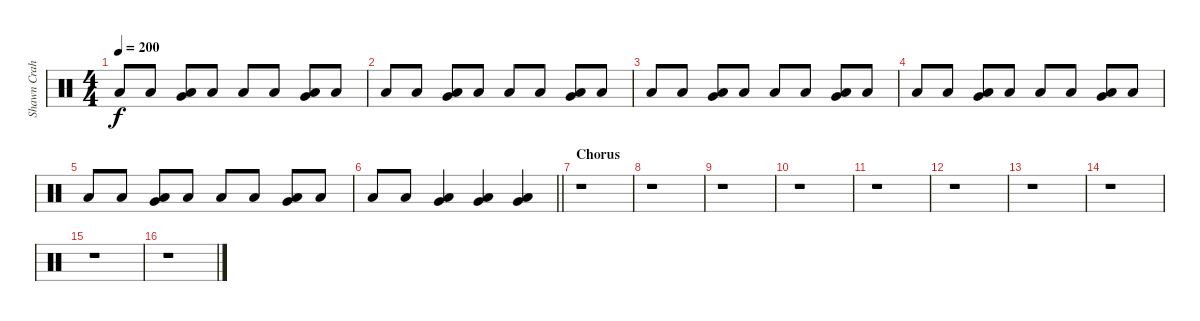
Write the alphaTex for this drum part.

\track ("Shawn Crahan" "Shawn Crah") {instrument percussion}
\staff {score}
\articulation defaults
\ts (4 4)
\tempo 200
\clef neutral
\ks c "Low Floor Tom (hit)".8{dy f} "Low Floor Tom (hit)".8
("Very Low Tom (hit)" "Low Floor Tom (hit)").8 "Low Floor Tom (hit)".8 "Low Floor Tom (hit)".8 "Low Floor Tom (hit)".8 ("Very Low Tom (hit)" "Low Floor Tom (hit)").8 "Low Floor Tom (hit)".8 |
"Low Floor Tom (hit)".8 "Low Floor Tom (hit)".8 ("Very Low Tom (hit)" "Low Floor Tom (hit)").8 "Low Floor Tom (hit)".8 "Low Floor Tom (hit)".8 "Low Floor Tom (hit)".8 ("Very Low Tom (hit)" "Low Floor Tom (hit)").8 "Low Floor Tom (hit)".8 |
"Low Floor Tom (hit)".8 "Low Floor Tom (hit)".8 ("Very Low Tom (hit)" "Low Floor Tom (hit)").8 "Low Floor Tom (hit)".8 "Low Floor Tom (hit)".8 "Low Floor Tom (hit)".8 ("Very Low Tom (hit)" "Low Floor Tom (hit)").8 "Low Floor Tom (hit)".8 |
"Low Floor Tom (hit)".8 "Low Floor Tom (hit)".8 ("Very Low Tom (hit)" "Low Floor Tom (hit)").8 "Low Floor Tom (hit)".8 "Low Floor Tom (hit)".8 "Low Floor Tom (hit)".8 ("Very Low Tom (hit)" "Low Floor Tom (hit)").8 "Low Floor Tom (hit)".8 |
"Low Floor Tom (hit)".8 "Low Floor Tom (hit)".8 ("Very Low Tom (hit)" "Low Floor Tom (hit)").8 "Low Floor Tom (hit)".8 "Low Floor Tom (hit)".8 "Low Floor Tom (hit)".8 ("Very Low Tom (hit)" "Low Floor Tom (hit)").8 "Low Floor Tom (hit)".8 |
\barLineRight lightlight "Low Floor Tom (hit)".8 "Low Floor Tom (hit)".8
("Very Low Tom (hit)" "Low Floor Tom (hit)").4 ("Very Low Tom (hit)" "Low Floor Tom (hit)").4 ("Very Low Tom (hit)" "Low Floor Tom (hit)").4 |
\section ("" "Chorus")
r.1 |
r.1 |
r.1 |
r.1 |
r.1 |
r.1 |
r.1 |
r.1 |
r.1 |
r.1
